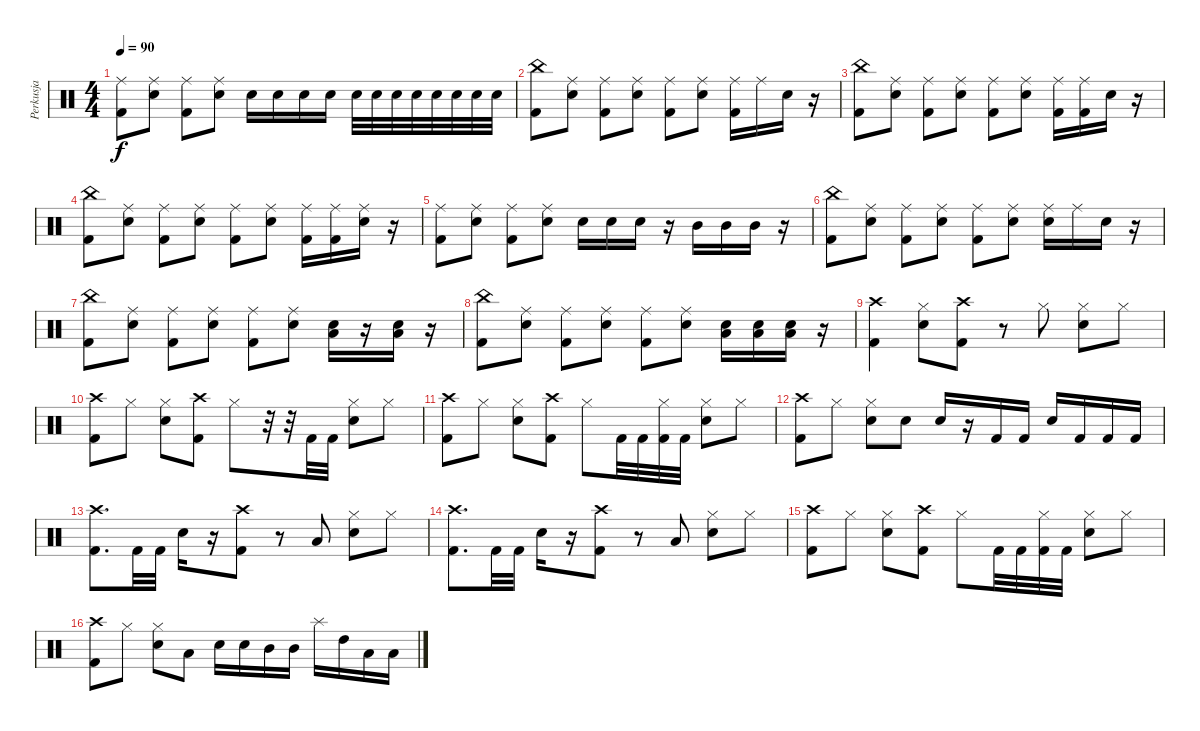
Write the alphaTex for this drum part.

\track ("Perkusja" "Perkusja") {instrument percussion}
\staff {score}
\articulation defaults
\ts (4 4)
\tempo 90
\clef neutral
\ks c
("Ride (middle)" "Kick (hit) 2").8{dy f} ("Ride (middle)" "Snare (hit) 2").8 ("Ride (middle)" "Kick (hit) 2").8 ("Ride (middle)" "Snare (hit) 2").8 "Snare (hit) 2".16 "Snare (hit) 2".16 "Snare (hit) 2".16 "Snare (hit) 2".16 "Snare (hit) 2".32 "Snare (hit) 2".32 "Snare (hit) 2".32 "Snare (hit) 2".32 "Snare (hit) 2".32 "Snare (hit) 2".32 "Snare (hit) 2".32 "Snare (hit) 2".32 |
("China (hit)" "Kick (hit) 2").8 ("Ride (middle)" "Snare (hit) 2").8 ("Ride (middle)" "Kick (hit) 2").8 ("Ride (middle)" "Snare (hit) 2").8 ("Ride (middle)" "Kick (hit) 2").8 ("Ride (middle)" "Snare (hit) 2").8 ("Ride (middle)" "Kick (hit) 2").16 "Ride (middle)".16 "Snare (hit) 2".16 r.16 |
("China (hit)" "Kick (hit) 2").8 ("Ride (middle)" "Snare (hit) 2").8 ("Ride (middle)" "Kick (hit) 2").8 ("Ride (middle)" "Snare (hit) 2").8 ("Ride (middle)" "Kick (hit) 2").8 ("Ride (middle)" "Snare (hit) 2").8 ("Ride (middle)" "Kick (hit) 2").16 ("Ride (middle)" "Kick (hit) 2").16 "Snare (hit) 2".16 r.16 |
("China (hit)" "Kick (hit) 2").8 ("Ride (middle)" "Snare (hit) 2").8 ("Ride (middle)" "Kick (hit) 2").8 ("Ride (middle)" "Snare (hit) 2").8 ("Ride (middle)" "Kick (hit) 2").8 ("Ride (middle)" "Snare (hit) 2").8 ("Ride (middle)" "Kick (hit) 2").16 ("Ride (middle)" "Kick (hit) 2").16 ("Ride (middle)" "Snare (hit) 2").16 r.16 |
("Ride (middle)" "Kick (hit) 2").8 ("Ride (middle)" "Snare (hit) 2").8 ("Ride (middle)" "Kick (hit) 2").8 ("Ride (middle)" "Snare (hit) 2").8 "Snare (hit) 2".16 "Snare (hit) 2".16 "Snare (hit) 2".16 r.16 "Mid Tom (hit)".16 "Mid Tom (hit)".16 "Mid Tom (hit)".16 r.16 |
("China (hit)" "Kick (hit) 2").8 ("Ride (middle)" "Snare (hit) 2").8 ("Ride (middle)" "Kick (hit) 2").8 ("Ride (middle)" "Snare (hit) 2").8 ("Ride (middle)" "Kick (hit) 2").8 ("Ride (middle)" "Snare (hit) 2").8 ("Ride (middle)" "Snare (hit) 2").16 "Ride (middle)".16 "Snare (hit) 2".16 r.16 |
("China (hit)" "Kick (hit) 2").8 ("Ride (middle)" "Snare (hit) 2").8 ("Ride (middle)" "Kick (hit) 2").8 ("Ride (middle)" "Snare (hit) 2").8 ("Ride (middle)" "Kick (hit) 2").8 ("Ride (middle)" "Snare (hit) 2").8 ("Snare (hit) 2" "Low Floor Tom (hit)").16 r.16 ("Snare (hit) 2" "Low Floor Tom (hit)").16 r.16 |
("China (hit)" "Kick (hit) 2").8 ("Ride (middle)" "Snare (hit) 2").8 ("Ride (middle)" "Kick (hit) 2").8 ("Ride (middle)" "Snare (hit) 2").8 ("Ride (middle)" "Kick (hit) 2").8 ("Ride (middle)" "Snare (hit) 2").8 ("Snare (hit) 2" "Low Floor Tom (hit)").16 ("Snare (hit) 2" "Low Floor Tom (hit)").16 ("Snare (hit) 2" "Low Floor Tom (hit)").16 r.16 |
("Crash high (hit)" "Kick (hit) 2").4 ("Hi-Hat (closed)" "Snare (hit) 2").8 ("Kick (hit) 2" "Crash high (hit)").8 r.8 "Hi-Hat (closed)".8 ("Hi-Hat (closed)" "Snare (hit) 2").8 "Hi-Hat (closed)".8 |
("Crash high (hit)" "Kick (hit) 2").8 "Hi-Hat (closed)".8 ("Hi-Hat (closed)" "Snare (hit) 2").8 ("Kick (hit) 2" "Crash high (hit)").8 "Hi-Hat (closed)".8 r.32 r.32 "Kick (hit) 2".32 "Kick (hit) 2".32 ("Hi-Hat (closed)" "Snare (hit) 2").8 "Hi-Hat (closed)".8 |
("Crash high (hit)" "Kick (hit) 2").8 "Hi-Hat (closed)".8 ("Hi-Hat (closed)" "Snare (hit) 2").8 ("Kick (hit) 2" "Crash high (hit)").8 "Hi-Hat (closed)".8 "Kick (hit) 2".32 "Kick (hit) 2".32 ("Hi-Hat (closed)" "Kick (hit) 2").32 "Kick (hit) 2".32 ("Hi-Hat (closed)" "Snare (hit) 2").8 "Hi-Hat (closed)".8 |
("Crash high (hit)" "Kick (hit) 2").8 "Hi-Hat (closed)".8 ("Hi-Hat (closed)" "Snare (hit) 2").8 "Snare (hit) 2".8 "Snare (hit) 2".16 r.16 "Kick (hit) 2".16 "Kick (hit) 2".16 "Snare (hit) 2".16 "Kick (hit) 2".16 "Kick (hit) 2".16 "Kick (hit) 2".16 |
("Crash high (hit)" "Kick (hit) 2").8{d} "Kick (hit) 2".32 "Kick (hit) 2".32 "Snare (hit) 2".16 r.16 ("Kick (hit) 2" "Crash high (hit)").8 r.8 "Low Floor Tom (hit)".8 ("Hi-Hat (closed)" "Snare (hit) 2").8 "Hi-Hat (closed)".8 |
("Crash high (hit)" "Kick (hit) 2").8{d} "Kick (hit) 2".32 "Kick (hit) 2".32 "Snare (hit) 2".16 r.16 ("Kick (hit) 2" "Crash high (hit)").8 r.8 "Low Floor Tom (hit)".8 ("Hi-Hat (closed)" "Snare (hit) 2").8 "Hi-Hat (closed)".8 |
("Crash high (hit)" "Kick (hit) 2").8 "Hi-Hat (closed)".8 ("Hi-Hat (closed)" "Snare (hit) 2").8 ("Kick (hit) 2" "Crash high (hit)").8 "Hi-Hat (closed)".8 "Kick (hit) 2".32 "Kick (hit) 2".32 ("Hi-Hat (closed)" "Kick (hit) 2").32 "Kick (hit) 2".32 ("Hi-Hat (closed)" "Snare (hit) 2").8 "Hi-Hat (closed)".8 |
("Crash high (hit)" "Kick (hit) 2").8 "Hi-Hat (closed)".8 ("Hi-Hat (closed)" "Snare (hit) 2").8 "Low Floor Tom (hit)".8 "Snare (hit) 2".16 "Snare (hit) 2".16 "Mid Tom (hit)".16 "Mid Tom (hit)".16 "Splash (hit)".16 "High Tom (hit)".16 "Low Floor Tom (hit)".16 "Low Floor Tom (hit)".16
